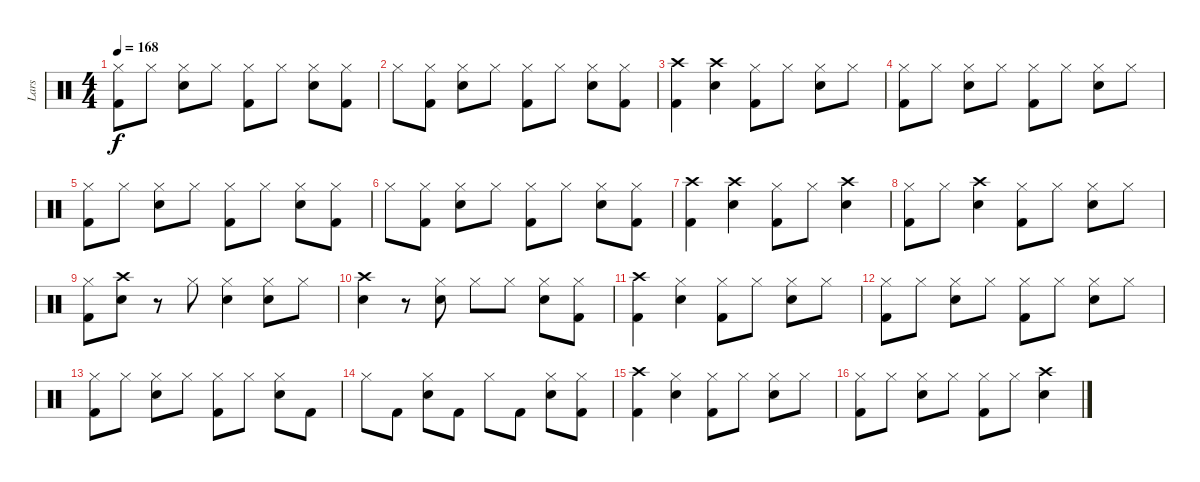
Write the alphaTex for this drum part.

\track ("Lars" "Lars") {instrument percussion}
\staff {score}
\articulation defaults
\ts (4 4)
\tempo 168
\clef neutral
\ks c
("Hi-Hat (closed)" "Kick (hit) 2").8{dy f} "Hi-Hat (closed)".8 ("Hi-Hat (closed)" "Snare (hit) 2").8 "Hi-Hat (closed)".8 ("Hi-Hat (closed)" "Kick (hit) 2").8 "Hi-Hat (closed)".8 ("Hi-Hat (closed)" "Snare (hit) 2").8 ("Hi-Hat (closed)" "Kick (hit) 2").8 |
"Hi-Hat (closed)".8 ("Hi-Hat (closed)" "Kick (hit) 2").8 ("Hi-Hat (closed)" "Snare (hit) 2").8 "Hi-Hat (closed)".8 ("Hi-Hat (closed)" "Kick (hit) 2").8 "Hi-Hat (closed)".8 ("Hi-Hat (closed)" "Snare (hit) 2").8 ("Hi-Hat (closed)" "Kick (hit) 2").8 |
("Crash high (hit)" "Kick (hit) 2").4 ("Crash high (hit)" "Snare (hit) 2").4 ("Hi-Hat (closed)" "Kick (hit) 2").8 "Hi-Hat (closed)".8 ("Hi-Hat (closed)" "Snare (hit) 2").8 "Hi-Hat (closed)".8 |
("Hi-Hat (closed)" "Kick (hit) 2").8 "Hi-Hat (closed)".8 ("Hi-Hat (closed)" "Snare (hit) 2").8 "Hi-Hat (closed)".8 ("Hi-Hat (closed)" "Kick (hit) 2").8 "Hi-Hat (closed)".8 ("Hi-Hat (closed)" "Snare (hit) 2").8 "Hi-Hat (closed)".8 |
("Hi-Hat (closed)" "Kick (hit) 2").8 "Hi-Hat (closed)".8 ("Hi-Hat (closed)" "Snare (hit) 2").8 "Hi-Hat (closed)".8 ("Hi-Hat (closed)" "Kick (hit) 2").8 "Hi-Hat (closed)".8 ("Hi-Hat (closed)" "Snare (hit) 2").8 ("Hi-Hat (closed)" "Kick (hit) 2").8 |
"Hi-Hat (closed)".8 ("Hi-Hat (closed)" "Kick (hit) 2").8 ("Hi-Hat (closed)" "Snare (hit) 2").8 "Hi-Hat (closed)".8 ("Hi-Hat (closed)" "Kick (hit) 2").8 "Hi-Hat (closed)".8 ("Hi-Hat (closed)" "Snare (hit) 2").8 ("Hi-Hat (closed)" "Kick (hit) 2").8 |
("Crash high (hit)" "Kick (hit) 2").4 ("Crash high (hit)" "Snare (hit) 2").4 ("Hi-Hat (closed)" "Kick (hit) 2").8 "Hi-Hat (closed)".8 ("Crash high (hit)" "Snare (hit) 2").4 |
("Hi-Hat (closed)" "Kick (hit) 2").8 "Hi-Hat (closed)".8 ("Crash high (hit)" "Snare (hit) 2").4 ("Hi-Hat (closed)" "Kick (hit) 2").8 "Hi-Hat (closed)".8 ("Hi-Hat (closed)" "Snare (hit) 2").8 "Hi-Hat (closed)".8 |
("Hi-Hat (closed)" "Kick (hit) 2").8 ("Crash high (hit)" "Snare (hit) 2").8 r.8 "Hi-Hat (closed)".8 ("Hi-Hat (closed)" "Snare (hit) 2").4 ("Hi-Hat (closed)" "Snare (hit) 2").8 "Hi-Hat (closed)".8 |
("Crash high (hit)" "Snare (hit) 2").4 r.8 ("Hi-Hat (closed)" "Snare (hit) 2").8 "Hi-Hat (closed)".8 "Hi-Hat (closed)".8 ("Hi-Hat (closed)" "Snare (hit) 2").8 ("Hi-Hat (closed)" "Kick (hit) 2").8 |
("Crash high (hit)" "Kick (hit) 2").4 ("Hi-Hat (closed)" "Snare (hit) 2").4 ("Hi-Hat (closed)" "Kick (hit) 2").8 "Hi-Hat (closed)".8 ("Hi-Hat (closed)" "Snare (hit) 2").8 "Hi-Hat (closed)".8 |
("Hi-Hat (closed)" "Kick (hit) 2").8 "Hi-Hat (closed)".8 ("Hi-Hat (closed)" "Snare (hit) 2").8 "Hi-Hat (closed)".8 ("Hi-Hat (closed)" "Kick (hit) 2").8 "Hi-Hat (closed)".8 ("Hi-Hat (closed)" "Snare (hit) 2").8 "Hi-Hat (closed)".8 |
("Hi-Hat (closed)" "Kick (hit) 2").8 "Hi-Hat (closed)".8 ("Hi-Hat (closed)" "Snare (hit) 2").8 "Hi-Hat (closed)".8 ("Hi-Hat (closed)" "Kick (hit) 2").8 "Hi-Hat (closed)".8 ("Hi-Hat (closed)" "Snare (hit) 2").8 "Kick (hit) 2".8 |
"Hi-Hat (closed)".8 "Kick (hit) 2".8 ("Hi-Hat (closed)" "Snare (hit) 2").8 "Kick (hit) 2".8 "Hi-Hat (closed)".8 "Kick (hit) 2".8 ("Hi-Hat (closed)" "Snare (hit) 2").8 ("Hi-Hat (closed)" "Kick (hit) 2").8 |
("Crash high (hit)" "Kick (hit) 2").4 ("Hi-Hat (closed)" "Snare (hit) 2").4 ("Hi-Hat (closed)" "Kick (hit) 2").8 "Hi-Hat (closed)".8 ("Hi-Hat (closed)" "Snare (hit) 2").8 "Hi-Hat (closed)".8 |
("Hi-Hat (closed)" "Kick (hit) 2").8 "Hi-Hat (closed)".8 ("Hi-Hat (closed)" "Snare (hit) 2").8 "Hi-Hat (closed)".8 ("Hi-Hat (closed)" "Kick (hit) 2").8 "Hi-Hat (closed)".8 ("Crash high (hit)" "Snare (hit) 2").4
